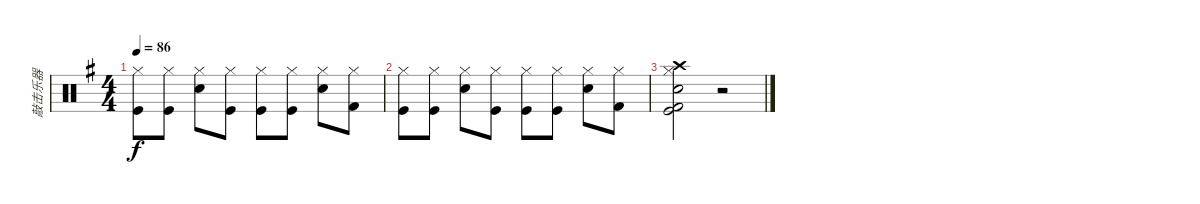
\track ("敲击乐器" "敲击乐器") {instrument percussion}
\staff {score}
\articulation defaults
\ts (4 4)
\tempo 86
\clef neutral
\ks g
("Hi-Hat (closed)" "Kick (hit)").8{dy f} ("Hi-Hat (closed)" "Kick (hit)").8 ("Hi-Hat (closed)" "Snare (hit) 2").8 ("Hi-Hat (closed)" "Kick (hit)").8 ("Hi-Hat (closed)" "Kick (hit)").8 ("Hi-Hat (closed)" "Kick (hit)").8 ("Hi-Hat (closed)" "Snare (hit) 2").8 ("Hi-Hat (closed)" "Kick (hit) 2").8 |
("Hi-Hat (closed)" "Kick (hit)").8 ("Hi-Hat (closed)" "Kick (hit)").8 ("Hi-Hat (closed)" "Snare (hit) 2").8 ("Hi-Hat (closed)" "Kick (hit)").8 ("Hi-Hat (closed)" "Kick (hit)").8 ("Hi-Hat (closed)" "Kick (hit)").8 ("Hi-Hat (closed)" "Snare (hit) 2").8 ("Hi-Hat (closed)" "Kick (hit) 2").8 |
("Crash high (hit)" "Snare (hit) 2" "Kick (hit)" "Kick (hit) 2" "Hi-Hat (closed)").2 r.2
